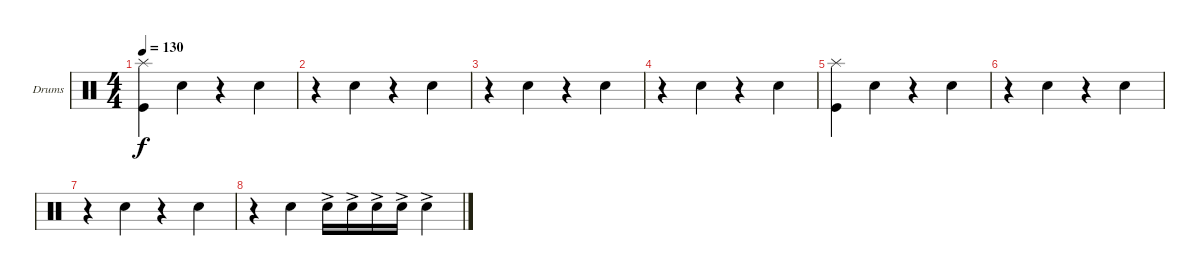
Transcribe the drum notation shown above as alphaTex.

\defaultSystemsLayout 4
\bracketExtendMode groupsimilarinstruments
\firstSystemTrackNameOrientation horizontal
\otherSystemsTrackNameOrientation horizontal
\track ("Inazawa" "Drums") {instrument percussion}
\staff {score}
\articulation defaults
\ts (4 4)
\tempo 130
\clef neutral
\ks c
("Kick (hit)" "Splash (hit)").4{dy f} "Snare (hit) 2".4 r.4 "Snare (hit) 2".4 |
r.4 "Snare (hit) 2".4 r.4 "Snare (hit) 2".4 |
r.4 "Snare (hit) 2".4 r.4 "Snare (hit) 2".4 |
r.4 "Snare (hit) 2".4 r.4 "Snare (hit) 2".4 |
("Kick (hit)" "Splash (hit)").4 "Snare (hit) 2".4 r.4 "Snare (hit) 2".4 |
r.4 "Snare (hit) 2".4 r.4 "Snare (hit) 2".4 |
r.4 "Snare (hit) 2".4 r.4 "Snare (hit) 2".4 |
r.4 "Snare (hit) 2".4 "Snare (hit) 2"{ac}.16 "Snare (hit) 2"{ac}.16 "Snare (hit) 2"{ac}.16 "Snare (hit) 2"{ac}.16 "Snare (hit) 2"{ac}.4
